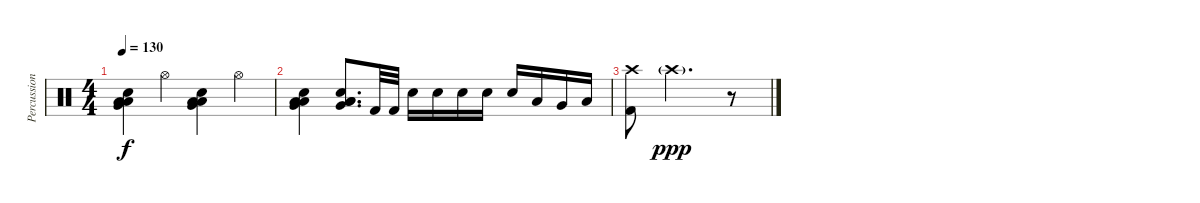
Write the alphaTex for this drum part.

\track ("Percussion" "Percussion") {instrument percussion}
\staff {score}
\articulation defaults
\ts (4 4)
\tempo 130
\clef neutral
\ks c
("Low Tom (hit)" "Very Low Tom (hit)" "Low Floor Tom (hit)" "Electric Snare (hit)").4{dy f} "Hi-Hat (open)".4 ("Low Tom (hit)" "Very Low Tom (hit)" "Low Floor Tom (hit)" "Electric Snare (hit)").4 "Hi-Hat (open)".4 |
("Low Tom (hit)" "Very Low Tom (hit)" "Low Floor Tom (hit)" "Electric Snare (hit)").4 ("Low Tom (hit)" "Very Low Tom (hit)" "Low Floor Tom (hit)" "Electric Snare (hit)").8{d} "Kick (hit) 2".32 "Kick (hit) 2".32 "Electric Snare (hit)".16 "Electric Snare (hit)".16 "Electric Snare (hit)".16 "Electric Snare (hit)".16 "Electric Snare (hit)".16 "Low Tom (hit)".16 "Very Low Tom (hit)".16 "Low Floor Tom (hit)".16 |
("Crash high (hit)" "Kick (hit) 2").8 "Crash high (hit)"{g}.2{d dy ppp} r.8
